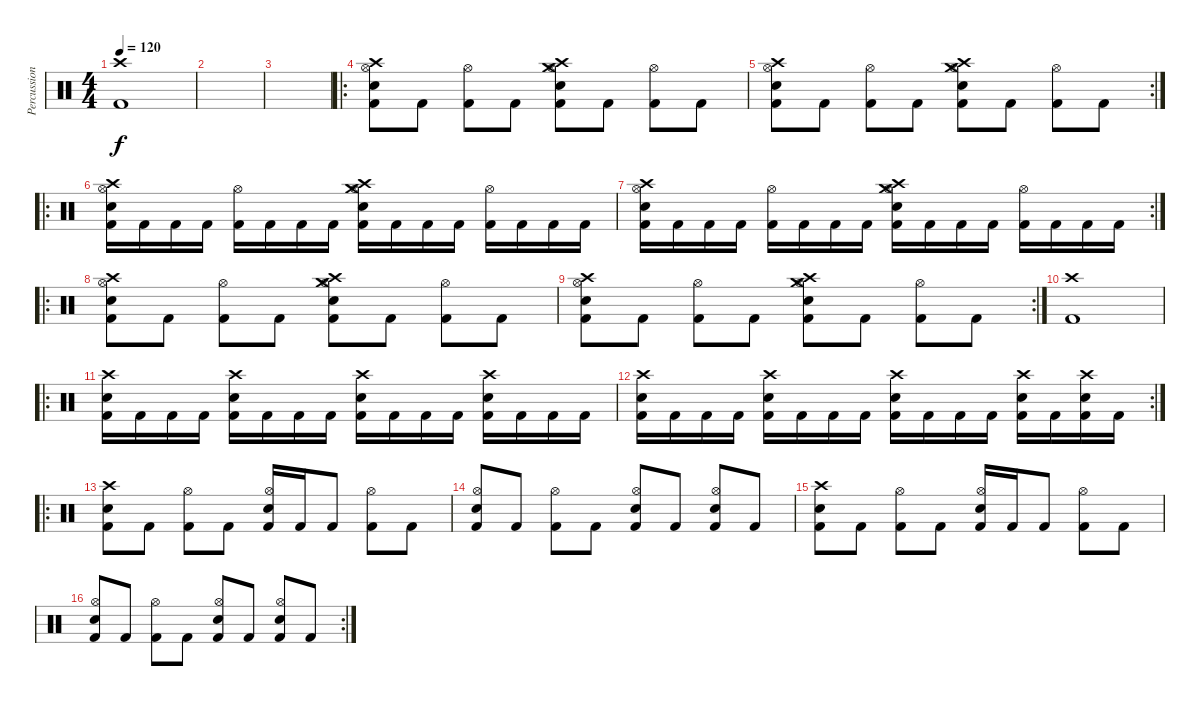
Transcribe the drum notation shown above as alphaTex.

\track ("Percussion" "Percussion") {instrument percussion}
\staff {score}
\articulation defaults
\ts (4 4)
\tempo 120
\clef neutral
\ks c
("Crash high (hit)" "Kick (hit) 2").1{dy f} |
|
|
\ro
("Crash high (hit)" "Hi-Hat (open)" "Electric Snare (hit)" "Kick (hit) 2").8 "Kick (hit) 2".8 ("Hi-Hat (open)" "Kick (hit) 2").8 "Kick (hit) 2".8 ("Hi-Hat (open)" "Crash medium (hit)" "Crash high (hit)" "Electric Snare (hit)" "Kick (hit) 2").8 "Kick (hit) 2".8 ("Hi-Hat (open)" "Kick (hit) 2").8 "Kick (hit) 2".8 |
\rc 2
("Crash high (hit)" "Hi-Hat (open)" "Electric Snare (hit)" "Kick (hit) 2").8 "Kick (hit) 2".8 ("Hi-Hat (open)" "Kick (hit) 2").8 "Kick (hit) 2".8 ("Hi-Hat (open)" "Crash medium (hit)" "Crash high (hit)" "Electric Snare (hit)" "Kick (hit) 2").8 "Kick (hit) 2".8 ("Hi-Hat (open)" "Kick (hit) 2").8 "Kick (hit) 2".8 |
\ro
("Crash high (hit)" "Hi-Hat (open)" "Electric Snare (hit)" "Kick (hit) 2").16 "Kick (hit) 2".16 "Kick (hit) 2".16 "Kick (hit) 2".16 ("Hi-Hat (open)" "Kick (hit) 2").16 "Kick (hit) 2".16 "Kick (hit) 2".16 "Kick (hit) 2".16 ("Hi-Hat (open)" "Crash medium (hit)" "Crash high (hit)" "Snare (hit) 2" "Kick (hit) 2").16 "Kick (hit) 2".16 "Kick (hit) 2".16 "Kick (hit) 2".16 ("Hi-Hat (open)" "Kick (hit) 2").16 "Kick (hit) 2".16 "Kick (hit) 2".16 "Kick (hit) 2".16 |
\rc 2
("Crash high (hit)" "Hi-Hat (open)" "Electric Snare (hit)" "Kick (hit) 2").16 "Kick (hit) 2".16 "Kick (hit) 2".16 "Kick (hit) 2".16 ("Hi-Hat (open)" "Kick (hit) 2").16 "Kick (hit) 2".16 "Kick (hit) 2".16 "Kick (hit) 2".16 ("Hi-Hat (open)" "Crash medium (hit)" "Crash high (hit)" "Snare (hit) 2" "Kick (hit) 2").16 "Kick (hit) 2".16 "Kick (hit) 2".16 "Kick (hit) 2".16 ("Hi-Hat (open)" "Kick (hit) 2").16 "Kick (hit) 2".16 "Kick (hit) 2".16 "Kick (hit) 2".16 |
\ro
("Crash high (hit)" "Hi-Hat (open)" "Electric Snare (hit)" "Kick (hit) 2").8 "Kick (hit) 2".8 ("Hi-Hat (open)" "Kick (hit) 2").8 "Kick (hit) 2".8 ("Hi-Hat (open)" "Crash medium (hit)" "Crash high (hit)" "Electric Snare (hit)" "Kick (hit) 2").8 "Kick (hit) 2".8 ("Hi-Hat (open)" "Kick (hit) 2").8 "Kick (hit) 2".8 |
\rc 2
("Crash high (hit)" "Hi-Hat (open)" "Electric Snare (hit)" "Kick (hit) 2").8 "Kick (hit) 2".8 ("Hi-Hat (open)" "Kick (hit) 2").8 "Kick (hit) 2".8 ("Hi-Hat (open)" "Crash medium (hit)" "Crash high (hit)" "Electric Snare (hit)" "Kick (hit) 2").8 "Kick (hit) 2".8 ("Hi-Hat (open)" "Kick (hit) 2").8 "Kick (hit) 2".8 |
("Crash high (hit)" "Kick (hit) 2").1 |
\ro
("Crash high (hit)" "Snare (hit) 2" "Kick (hit) 2").16 "Kick (hit) 2".16 "Kick (hit) 2".16 "Kick (hit) 2".16 ("Crash high (hit)" "Snare (hit) 2" "Kick (hit) 2").16 "Kick (hit) 2".16 "Kick (hit) 2".16 "Kick (hit) 2".16 ("Crash high (hit)" "Snare (hit) 2" "Kick (hit) 2").16 "Kick (hit) 2".16 "Kick (hit) 2".16 "Kick (hit) 2".16 ("Crash high (hit)" "Snare (hit) 2" "Kick (hit) 2").16 "Kick (hit) 2".16 "Kick (hit) 2".16 "Kick (hit) 2".16 |
\rc 2
("Crash high (hit)" "Snare (hit) 2" "Kick (hit) 2").16 "Kick (hit) 2".16 "Kick (hit) 2".16 "Kick (hit) 2".16 ("Crash high (hit)" "Snare (hit) 2" "Kick (hit) 2").16 "Kick (hit) 2".16 "Kick (hit) 2".16 "Kick (hit) 2".16 ("Crash high (hit)" "Snare (hit) 2" "Kick (hit) 2").16 "Kick (hit) 2".16 "Kick (hit) 2".16 "Kick (hit) 2".16 ("Crash high (hit)" "Snare (hit) 2" "Kick (hit) 2").16 "Kick (hit) 2".16 ("Crash high (hit)" "Snare (hit) 2" "Kick (hit) 2").16 "Kick (hit) 2".16 |
\ro
("Crash high (hit)" "Snare (hit) 2" "Kick (hit) 2").8 "Kick (hit) 2".8 ("Hi-Hat (open)" "Kick (hit) 2").8 "Kick (hit) 2".8 ("Hi-Hat (open)" "Snare (hit) 2" "Kick (hit) 2").16 "Kick (hit) 2".16 "Kick (hit) 2".8 ("Hi-Hat (open)" "Kick (hit) 2").8 "Kick (hit) 2".8 |
("Hi-Hat (open)" "Snare (hit) 2" "Kick (hit) 2").8 "Kick (hit) 2".8 ("Hi-Hat (open)" "Kick (hit) 2").8 "Kick (hit) 2".8 ("Hi-Hat (open)" "Snare (hit) 2" "Kick (hit) 2").8 "Kick (hit) 2".8 ("Hi-Hat (open)" "Snare (hit) 2" "Kick (hit) 2").8 "Kick (hit) 2".8 |
("Crash high (hit)" "Snare (hit) 2" "Kick (hit) 2").8 "Kick (hit) 2".8 ("Hi-Hat (open)" "Kick (hit) 2").8 "Kick (hit) 2".8 ("Hi-Hat (open)" "Snare (hit) 2" "Kick (hit) 2").16 "Kick (hit) 2".16 "Kick (hit) 2".8 ("Hi-Hat (open)" "Kick (hit) 2").8 "Kick (hit) 2".8 |
\rc 2
("Hi-Hat (open)" "Snare (hit) 2" "Kick (hit) 2").8 "Kick (hit) 2".8 ("Hi-Hat (open)" "Kick (hit) 2").8 "Kick (hit) 2".8 ("Hi-Hat (open)" "Snare (hit) 2" "Kick (hit) 2").8 "Kick (hit) 2".8 ("Hi-Hat (open)" "Snare (hit) 2" "Kick (hit) 2").8 "Kick (hit) 2".8
